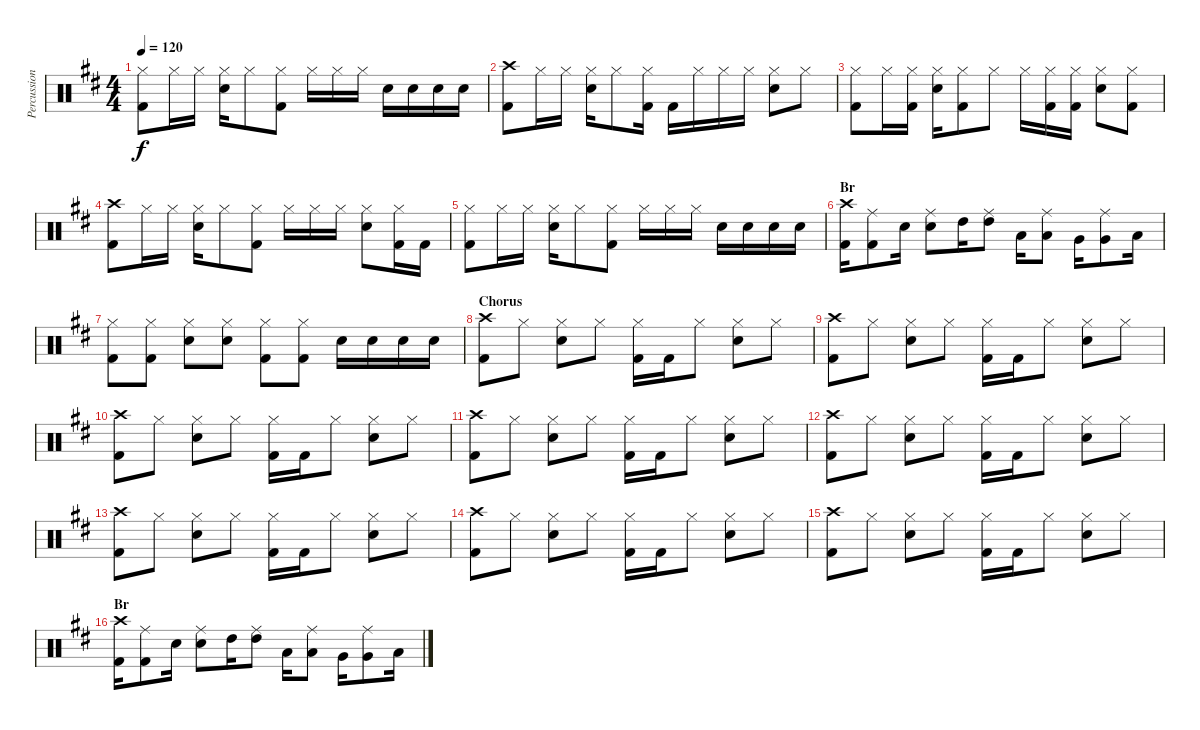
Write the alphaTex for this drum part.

\track ("Percussion" "Percussion") {instrument percussion}
\staff {score}
\articulation defaults
\ts (4 4)
\tempo 120
\clef neutral
\ks d
("Hi-Hat (closed)" "Kick (hit) 2").8{dy f} "Hi-Hat (closed)".16 "Hi-Hat (closed)".16 ("Hi-Hat (closed)" "Snare (hit) 2").16 "Hi-Hat (closed)".8 ("Hi-Hat (closed)" "Kick (hit) 2").8 "Hi-Hat (closed)".16 "Hi-Hat (closed)".16 "Hi-Hat (closed)".16 "Snare (hit) 2".16 "Snare (hit) 2".16 "Snare (hit) 2".16 "Snare (hit) 2".16 |
("Crash high (hit)" "Kick (hit) 2").8 "Hi-Hat (closed)".16 "Hi-Hat (closed)".16 ("Hi-Hat (closed)" "Snare (hit) 2").16 "Hi-Hat (closed)".8 ("Hi-Hat (closed)" "Kick (hit) 2").16 "Kick (hit) 2".16 "Hi-Hat (closed)".16 "Hi-Hat (closed)".16 "Hi-Hat (closed)".16 ("Hi-Hat (closed)" "Snare (hit) 2").8 "Hi-Hat (closed)".8 |
("Hi-Hat (closed)" "Kick (hit) 2").8 "Hi-Hat (closed)".16 ("Hi-Hat (closed)" "Kick (hit) 2").16 ("Hi-Hat (closed)" "Snare (hit) 2").16 ("Hi-Hat (closed)" "Kick (hit) 2").8 "Hi-Hat (closed)".8 "Hi-Hat (closed)".16 ("Hi-Hat (closed)" "Kick (hit) 2").16 ("Hi-Hat (closed)" "Kick (hit) 2").16 ("Hi-Hat (closed)" "Snare (hit) 2").8 ("Hi-Hat (closed)" "Kick (hit) 2").8 |
("Crash high (hit)" "Kick (hit) 2").8 "Hi-Hat (closed)".16 "Hi-Hat (closed)".16 ("Hi-Hat (closed)" "Snare (hit) 2").16 "Hi-Hat (closed)".8 ("Hi-Hat (closed)" "Kick (hit) 2").8 "Hi-Hat (closed)".16 "Hi-Hat (closed)".16 "Hi-Hat (closed)".16 ("Hi-Hat (closed)" "Snare (hit) 2").8 ("Hi-Hat (closed)" "Kick (hit) 2").16 "Kick (hit) 2".16 |
("Hi-Hat (closed)" "Kick (hit) 2").8 "Hi-Hat (closed)".16 "Hi-Hat (closed)".16 ("Hi-Hat (closed)" "Snare (hit) 2").16 "Hi-Hat (closed)".8 ("Hi-Hat (closed)" "Kick (hit) 2").8 "Hi-Hat (closed)".16 "Hi-Hat (closed)".16 "Hi-Hat (closed)".16 "Snare (hit) 2".16 "Snare (hit) 2".16 "Snare (hit) 2".16 "Snare (hit) 2".16 |
\section ("" "Br")
("Crash high (hit)" "Kick (hit) 2").16 ("Ride (middle)" "Kick (hit) 2").8 "Snare (hit) 2".16 ("Ride (middle)" "Snare (hit) 2").8 "High Tom (hit)".16 ("Ride (middle)" "High Tom (hit)").8 "Low Tom (hit)".16 ("Ride (middle)" "Low Tom (hit)").8 "Very Low Tom (hit)".16 ("Ride (middle)" "Very Low Tom (hit)").8 "Low Floor Tom (hit)".16 |
("Hi-Hat (closed)" "Kick (hit) 2").8 ("Hi-Hat (closed)" "Kick (hit) 2").8 ("Hi-Hat (closed)" "Snare (hit) 2").8 ("Hi-Hat (closed)" "Snare (hit) 2").8 ("Hi-Hat (closed)" "Kick (hit) 2").8 ("Hi-Hat (closed)" "Kick (hit) 2").8 "Snare (hit) 2".16 "Snare (hit) 2".16 "Snare (hit) 2".16 "Snare (hit) 2".16 |
\section ("" "Chorus")
("Crash high (hit)" "Kick (hit) 2").8 "Hi-Hat (closed)".8 ("Hi-Hat (closed)" "Snare (hit) 2").8 "Hi-Hat (closed)".8 ("Hi-Hat (closed)" "Kick (hit) 2").16 "Kick (hit) 2".16 "Hi-Hat (closed)".8 ("Hi-Hat (closed)" "Snare (hit) 2").8 "Hi-Hat (closed)".8 |
("Crash high (hit)" "Kick (hit) 2").8 "Hi-Hat (closed)".8 ("Hi-Hat (closed)" "Snare (hit) 2").8 "Hi-Hat (closed)".8 ("Hi-Hat (closed)" "Kick (hit) 2").16 "Kick (hit) 2".16 "Hi-Hat (closed)".8 ("Hi-Hat (closed)" "Snare (hit) 2").8 "Hi-Hat (closed)".8 |
("Crash high (hit)" "Kick (hit) 2").8 "Hi-Hat (closed)".8 ("Hi-Hat (closed)" "Snare (hit) 2").8 "Hi-Hat (closed)".8 ("Hi-Hat (closed)" "Kick (hit) 2").16 "Kick (hit) 2".16 "Hi-Hat (closed)".8 ("Hi-Hat (closed)" "Snare (hit) 2").8 "Hi-Hat (closed)".8 |
("Crash high (hit)" "Kick (hit) 2").8 "Hi-Hat (closed)".8 ("Hi-Hat (closed)" "Snare (hit) 2").8 "Hi-Hat (closed)".8 ("Hi-Hat (closed)" "Kick (hit) 2").16 "Kick (hit) 2".16 "Hi-Hat (closed)".8 ("Hi-Hat (closed)" "Snare (hit) 2").8 "Hi-Hat (closed)".8 |
("Crash high (hit)" "Kick (hit) 2").8 "Hi-Hat (closed)".8 ("Hi-Hat (closed)" "Snare (hit) 2").8 "Hi-Hat (closed)".8 ("Hi-Hat (closed)" "Kick (hit) 2").16 "Kick (hit) 2".16 "Hi-Hat (closed)".8 ("Hi-Hat (closed)" "Snare (hit) 2").8 "Hi-Hat (closed)".8 |
("Crash high (hit)" "Kick (hit) 2").8 "Hi-Hat (closed)".8 ("Hi-Hat (closed)" "Snare (hit) 2").8 "Hi-Hat (closed)".8 ("Hi-Hat (closed)" "Kick (hit) 2").16 "Kick (hit) 2".16 "Hi-Hat (closed)".8 ("Hi-Hat (closed)" "Snare (hit) 2").8 "Hi-Hat (closed)".8 |
("Crash high (hit)" "Kick (hit) 2").8 "Hi-Hat (closed)".8 ("Hi-Hat (closed)" "Snare (hit) 2").8 "Hi-Hat (closed)".8 ("Hi-Hat (closed)" "Kick (hit) 2").16 "Kick (hit) 2".16 "Hi-Hat (closed)".8 ("Hi-Hat (closed)" "Snare (hit) 2").8 "Hi-Hat (closed)".8 |
("Crash high (hit)" "Kick (hit) 2").8 "Hi-Hat (closed)".8 ("Hi-Hat (closed)" "Snare (hit) 2").8 "Hi-Hat (closed)".8 ("Hi-Hat (closed)" "Kick (hit) 2").16 "Kick (hit) 2".16 "Hi-Hat (closed)".8 ("Hi-Hat (closed)" "Snare (hit) 2").8 "Hi-Hat (closed)".8 |
\section ("" "Br")
("Crash high (hit)" "Kick (hit) 2").16 ("Ride (middle)" "Kick (hit) 2").8 "Snare (hit) 2".16 ("Ride (middle)" "Snare (hit) 2").8 "High Tom (hit)".16 ("Ride (middle)" "High Tom (hit)").8 "Low Tom (hit)".16 ("Ride (middle)" "Low Tom (hit)").8 "Very Low Tom (hit)".16 ("Ride (middle)" "Very Low Tom (hit)").8 "Low Floor Tom (hit)".16
